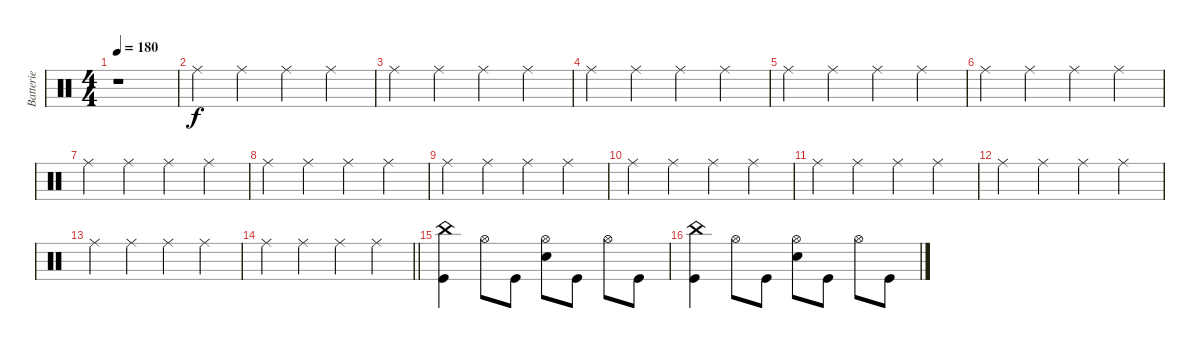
\track ("Batterie" "Batterie") {instrument percussion}
\staff {score}
\articulation defaults
\ts (4 4)
\tempo 180
\clef neutral
\ks c
r.1{dy f} |
"Ride (middle)".4 "Ride (middle)".4 "Ride (middle)".4 "Ride (middle)".4 |
"Ride (middle)".4 "Ride (middle)".4 "Ride (middle)".4 "Ride (middle)".4 |
"Ride (middle)".4 "Ride (middle)".4 "Ride (middle)".4 "Ride (middle)".4 |
"Ride (middle)".4 "Ride (middle)".4 "Ride (middle)".4 "Ride (middle)".4 |
"Ride (middle)".4 "Ride (middle)".4 "Ride (middle)".4 "Ride (middle)".4 |
"Ride (middle)".4 "Ride (middle)".4 "Ride (middle)".4 "Ride (middle)".4 |
"Ride (middle)".4 "Ride (middle)".4 "Ride (middle)".4 "Ride (middle)".4 |
"Ride (middle)".4 "Ride (middle)".4 "Ride (middle)".4 "Ride (middle)".4 |
"Ride (middle)".4 "Ride (middle)".4 "Ride (middle)".4 "Ride (middle)".4 |
"Ride (middle)".4 "Ride (middle)".4 "Ride (middle)".4 "Ride (middle)".4 |
"Ride (middle)".4 "Ride (middle)".4 "Ride (middle)".4 "Ride (middle)".4 |
"Ride (middle)".4 "Ride (middle)".4 "Ride (middle)".4 "Ride (middle)".4 |
\barLineRight lightlight "Ride (middle)".4 "Ride (middle)".4 "Ride (middle)".4 "Ride (middle)".4
|
("China (hit)" "Kick (hit)").4 "Hi-Hat (open)".8 "Kick (hit)".8 ("Hi-Hat (open)" "Electric Snare (hit)").8 "Kick (hit)".8 "Hi-Hat (open)".8 "Kick (hit)".8 |
("China (hit)" "Kick (hit)").4 "Hi-Hat (open)".8 "Kick (hit)".8 ("Hi-Hat (open)" "Electric Snare (hit)").8 "Kick (hit)".8 "Hi-Hat (open)".8 "Kick (hit)".8
